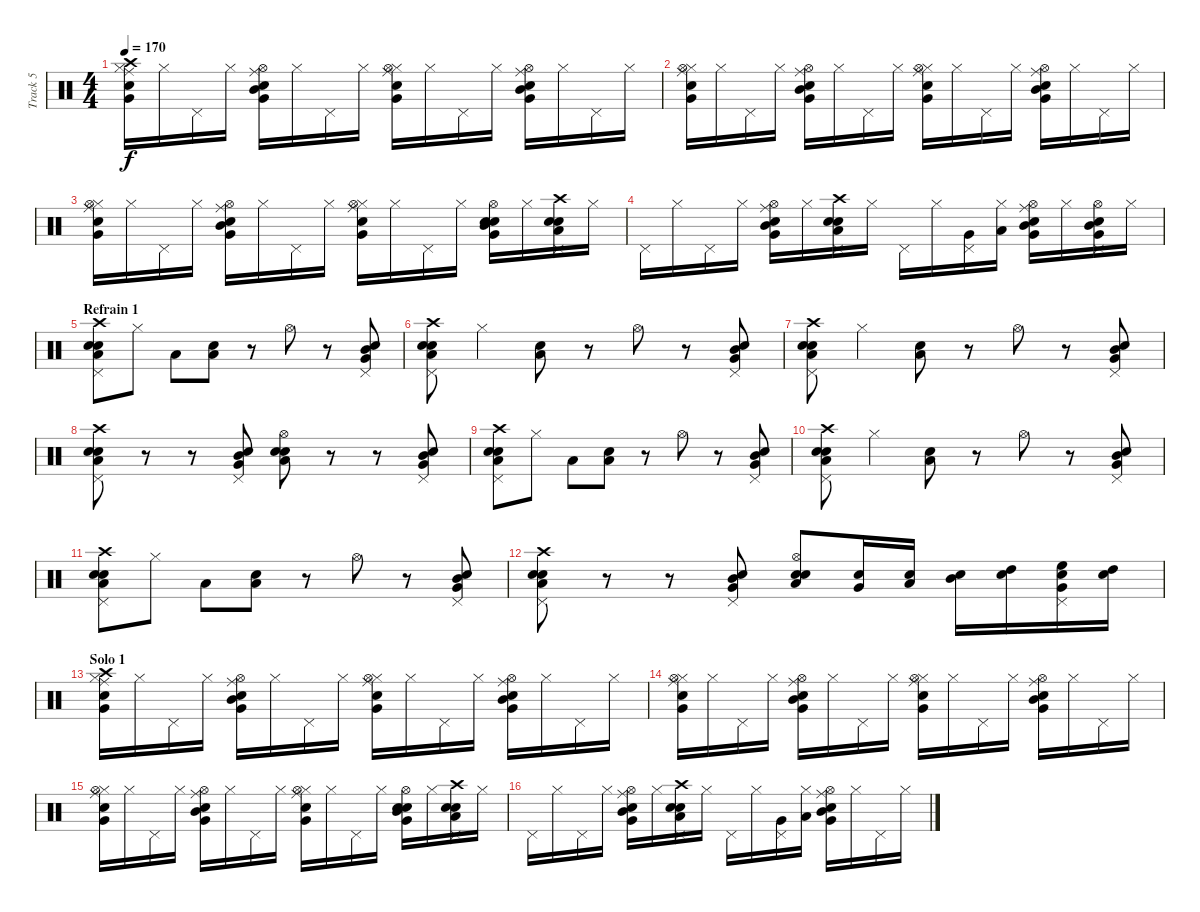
\track ("Track 5" "Track 5") {instrument percussion}
\staff {score}
\articulation defaults
\ts (4 4)
\tempo 170
\clef neutral
\ks c
("Very Low Tom (hit)" "Snare (hit) 2" "Hi-Hat (closed)" "Ride (middle)" "Crash high (hit)").16{dy f} "Hi-Hat (closed)".16 "Pedal Hi-Hat (hit)".16 "Hi-Hat (closed)".16 ("Ride (middle)" "Very Low Tom (hit)" "Mid Tom (hit)" "Electric Snare (hit)" "Hi-Hat (open)").16 "Hi-Hat (closed)".16 "Pedal Hi-Hat (hit)".16 "Hi-Hat (closed)".16 ("Very Low Tom (hit)" "Snare (hit) 2" "Hi-Hat (closed)" "Ride (middle)" "Hi-Hat (open)").16 "Hi-Hat (closed)".16 "Pedal Hi-Hat (hit)".16 "Hi-Hat (closed)".16 ("Ride (middle)" "Very Low Tom (hit)" "Mid Tom (hit)" "Electric Snare (hit)" "Hi-Hat (open)").16 "Hi-Hat (closed)".16 "Pedal Hi-Hat (hit)".16 "Hi-Hat (closed)".16 |
("Very Low Tom (hit)" "Snare (hit) 2" "Hi-Hat (closed)" "Ride (middle)" "Hi-Hat (open)").16 "Hi-Hat (closed)".16 "Pedal Hi-Hat (hit)".16 "Hi-Hat (closed)".16 ("Ride (middle)" "Very Low Tom (hit)" "Mid Tom (hit)" "Electric Snare (hit)" "Hi-Hat (open)").16 "Hi-Hat (closed)".16 "Pedal Hi-Hat (hit)".16 "Hi-Hat (closed)".16 ("Very Low Tom (hit)" "Snare (hit) 2" "Hi-Hat (closed)" "Ride (middle)" "Hi-Hat (open)").16 "Hi-Hat (closed)".16 "Pedal Hi-Hat (hit)".16 "Hi-Hat (closed)".16 ("Ride (middle)" "Very Low Tom (hit)" "Mid Tom (hit)" "Electric Snare (hit)" "Hi-Hat (open)").16 "Hi-Hat (closed)".16 "Pedal Hi-Hat (hit)".16 "Hi-Hat (closed)".16 |
("Very Low Tom (hit)" "Snare (hit) 2" "Hi-Hat (closed)" "Ride (middle)" "Hi-Hat (open)").16 "Hi-Hat (closed)".16 "Pedal Hi-Hat (hit)".16 "Hi-Hat (closed)".16 ("Ride (middle)" "Very Low Tom (hit)" "Mid Tom (hit)" "Electric Snare (hit)" "Hi-Hat (open)").16 "Hi-Hat (closed)".16 "Pedal Hi-Hat (hit)".16 "Hi-Hat (closed)".16 ("Very Low Tom (hit)" "Snare (hit) 2" "Hi-Hat (closed)" "Ride (middle)" "Hi-Hat (open)").16 "Hi-Hat (closed)".16 "Pedal Hi-Hat (hit)".16 "Hi-Hat (closed)".16 ("Hi-Hat (open)" "Very Low Tom (hit)" "Mid Tom (hit)" "Electric Snare (hit)" "Snare (hit) 2").16 "Hi-Hat (closed)".16 ("Pedal Hi-Hat (hit)" "Low Tom (hit)" "Electric Snare (hit)" "Snare (hit) 2" "Crash high (hit)").16 "Hi-Hat (closed)".16 |
"Pedal Hi-Hat (hit)".16 "Hi-Hat (closed)".16 "Pedal Hi-Hat (hit)".16 "Hi-Hat (closed)".16 ("Ride (middle)" "Very Low Tom (hit)" "Mid Tom (hit)" "Electric Snare (hit)" "Hi-Hat (open)").16 "Hi-Hat (closed)".16 ("Pedal Hi-Hat (hit)" "Low Tom (hit)" "Electric Snare (hit)" "Snare (hit) 2" "Crash high (hit)").16 "Hi-Hat (closed)".16 "Pedal Hi-Hat (hit)".16 "Hi-Hat (closed)".16 ("Pedal Hi-Hat (hit)" "Very Low Tom (hit)").16 ("Hi-Hat (closed)" "Low Tom (hit)").16 ("Ride (middle)" "Very Low Tom (hit)" "Mid Tom (hit)" "Electric Snare (hit)" "Hi-Hat (open)").16 "Hi-Hat (closed)".16 ("Pedal Hi-Hat (hit)" "Very Low Tom (hit)" "Mid Tom (hit)" "Electric Snare (hit)" "Hi-Hat (open)").16 "Hi-Hat (closed)".16 |
\section ("" "Refrain 1")
("Pedal Hi-Hat (hit)" "Low Tom (hit)" "Electric Snare (hit)" "Snare (hit) 2" "Crash high (hit)").8 "Hi-Hat (closed)".8 "Low Floor Tom (hit)".8 ("Electric Snare (hit)" "Low Tom (hit)").8 r.8 "Hi-Hat (open)".8 r.8 ("Pedal Hi-Hat (hit)" "Very Low Tom (hit)" "Mid Tom (hit)" "Electric Snare (hit)").8 |
("Pedal Hi-Hat (hit)" "Low Tom (hit)" "Electric Snare (hit)" "Snare (hit) 2" "Crash high (hit)").8 "Hi-Hat (closed)".4 ("Electric Snare (hit)" "Low Tom (hit)").8 r.8 "Hi-Hat (open)".8 r.8 ("Pedal Hi-Hat (hit)" "Very Low Tom (hit)" "Mid Tom (hit)" "Electric Snare (hit)").8 |
("Pedal Hi-Hat (hit)" "Low Tom (hit)" "Electric Snare (hit)" "Snare (hit) 2" "Crash high (hit)").8 "Hi-Hat (closed)".4 ("Electric Snare (hit)" "Low Tom (hit)").8 r.8 "Hi-Hat (open)".8 r.8 ("Pedal Hi-Hat (hit)" "Very Low Tom (hit)" "Mid Tom (hit)" "Electric Snare (hit)").8 |
("Pedal Hi-Hat (hit)" "Low Tom (hit)" "Electric Snare (hit)" "Snare (hit) 2" "Crash high (hit)").8 r.8 r.8 ("Pedal Hi-Hat (hit)" "Very Low Tom (hit)" "Mid Tom (hit)" "Electric Snare (hit)").8 ("Low Tom (hit)" "Electric Snare (hit)" "Snare (hit) 2" "Hi-Hat (open)").8 r.8 r.8 ("Pedal Hi-Hat (hit)" "Very Low Tom (hit)" "Mid Tom (hit)" "Electric Snare (hit)").8 |
("Pedal Hi-Hat (hit)" "Low Tom (hit)" "Electric Snare (hit)" "Snare (hit) 2" "Crash high (hit)").8 "Hi-Hat (closed)".8 "Low Floor Tom (hit)".8 ("Electric Snare (hit)" "Low Tom (hit)").8 r.8 "Hi-Hat (open)".8 r.8 ("Pedal Hi-Hat (hit)" "Very Low Tom (hit)" "Mid Tom (hit)" "Electric Snare (hit)").8 |
("Pedal Hi-Hat (hit)" "Low Tom (hit)" "Electric Snare (hit)" "Snare (hit) 2" "Crash high (hit)").8 "Hi-Hat (closed)".4 ("Electric Snare (hit)" "Low Tom (hit)").8 r.8 "Hi-Hat (open)".8 r.8 ("Pedal Hi-Hat (hit)" "Very Low Tom (hit)" "Mid Tom (hit)" "Electric Snare (hit)").8 |
("Pedal Hi-Hat (hit)" "Low Tom (hit)" "Electric Snare (hit)" "Snare (hit) 2" "Crash high (hit)").8 "Hi-Hat (closed)".8 "Low Floor Tom (hit)".8 ("Electric Snare (hit)" "Low Tom (hit)").8 r.8 "Hi-Hat (open)".8 r.8 ("Pedal Hi-Hat (hit)" "Very Low Tom (hit)" "Mid Tom (hit)" "Electric Snare (hit)").8 |
("Pedal Hi-Hat (hit)" "Low Tom (hit)" "Electric Snare (hit)" "Snare (hit) 2" "Crash high (hit)").8 r.8 r.8 ("Pedal Hi-Hat (hit)" "Very Low Tom (hit)" "Mid Tom (hit)" "Electric Snare (hit)").8 ("Low Tom (hit)" "Electric Snare (hit)" "Snare (hit) 2" "Hi-Hat (open)").8 ("Very Low Tom (hit)" "Electric Snare (hit)").16 ("Low Tom (hit)" "Snare (hit) 2").16 ("Mid Tom (hit)" "Electric Snare (hit)").16 ("High Tom (hit)" "Snare (hit) 2").16 ("Pedal Hi-Hat (hit)" "Very Low Tom (hit)" "High Floor Tom (hit)" "Electric Snare (hit)").16 ("High Tom (hit)" "Snare (hit) 2").16 |
\section ("" "Solo 1")
("Very Low Tom (hit)" "Snare (hit) 2" "Hi-Hat (closed)" "Ride (middle)" "Crash high (hit)").16 "Hi-Hat (closed)".16 "Pedal Hi-Hat (hit)".16 "Hi-Hat (closed)".16 ("Ride (middle)" "Very Low Tom (hit)" "Mid Tom (hit)" "Electric Snare (hit)" "Hi-Hat (open)").16 "Hi-Hat (closed)".16 "Pedal Hi-Hat (hit)".16 "Hi-Hat (closed)".16 ("Very Low Tom (hit)" "Snare (hit) 2" "Hi-Hat (closed)" "Ride (middle)" "Hi-Hat (open)").16 "Hi-Hat (closed)".16 "Pedal Hi-Hat (hit)".16 "Hi-Hat (closed)".16 ("Ride (middle)" "Very Low Tom (hit)" "Mid Tom (hit)" "Electric Snare (hit)" "Hi-Hat (open)").16 "Hi-Hat (closed)".16 "Pedal Hi-Hat (hit)".16 "Hi-Hat (closed)".16 |
("Very Low Tom (hit)" "Snare (hit) 2" "Hi-Hat (closed)" "Ride (middle)" "Hi-Hat (open)").16 "Hi-Hat (closed)".16 "Pedal Hi-Hat (hit)".16 "Hi-Hat (closed)".16 ("Ride (middle)" "Very Low Tom (hit)" "Mid Tom (hit)" "Electric Snare (hit)" "Hi-Hat (open)").16 "Hi-Hat (closed)".16 "Pedal Hi-Hat (hit)".16 "Hi-Hat (closed)".16 ("Very Low Tom (hit)" "Snare (hit) 2" "Hi-Hat (closed)" "Ride (middle)" "Hi-Hat (open)").16 "Hi-Hat (closed)".16 "Pedal Hi-Hat (hit)".16 "Hi-Hat (closed)".16 ("Ride (middle)" "Very Low Tom (hit)" "Mid Tom (hit)" "Electric Snare (hit)" "Hi-Hat (open)").16 "Hi-Hat (closed)".16 "Pedal Hi-Hat (hit)".16 "Hi-Hat (closed)".16 |
("Very Low Tom (hit)" "Snare (hit) 2" "Hi-Hat (closed)" "Ride (middle)" "Hi-Hat (open)").16 "Hi-Hat (closed)".16 "Pedal Hi-Hat (hit)".16 "Hi-Hat (closed)".16 ("Ride (middle)" "Very Low Tom (hit)" "Mid Tom (hit)" "Electric Snare (hit)" "Hi-Hat (open)").16 "Hi-Hat (closed)".16 "Pedal Hi-Hat (hit)".16 "Hi-Hat (closed)".16 ("Very Low Tom (hit)" "Snare (hit) 2" "Hi-Hat (closed)" "Ride (middle)" "Hi-Hat (open)").16 "Hi-Hat (closed)".16 "Pedal Hi-Hat (hit)".16 "Hi-Hat (closed)".16 ("Hi-Hat (open)" "Very Low Tom (hit)" "Mid Tom (hit)" "Electric Snare (hit)" "Snare (hit) 2").16 "Hi-Hat (closed)".16 ("Pedal Hi-Hat (hit)" "Low Tom (hit)" "Electric Snare (hit)" "Snare (hit) 2" "Crash high (hit)").16 "Hi-Hat (closed)".16 |
"Pedal Hi-Hat (hit)".16 "Hi-Hat (closed)".16 "Pedal Hi-Hat (hit)".16 "Hi-Hat (closed)".16 ("Ride (middle)" "Very Low Tom (hit)" "Mid Tom (hit)" "Electric Snare (hit)" "Hi-Hat (open)").16 "Hi-Hat (closed)".16 ("Pedal Hi-Hat (hit)" "Low Tom (hit)" "Electric Snare (hit)" "Snare (hit) 2" "Crash high (hit)").16 "Hi-Hat (closed)".16 "Pedal Hi-Hat (hit)".16 "Hi-Hat (closed)".16 ("Pedal Hi-Hat (hit)" "Very Low Tom (hit)").16 ("Hi-Hat (closed)" "Low Tom (hit)").16 ("Ride (middle)" "Very Low Tom (hit)" "Mid Tom (hit)" "Electric Snare (hit)" "Hi-Hat (open)").16 "Hi-Hat (closed)".16 "Pedal Hi-Hat (hit)".16 "Hi-Hat (closed)".16
